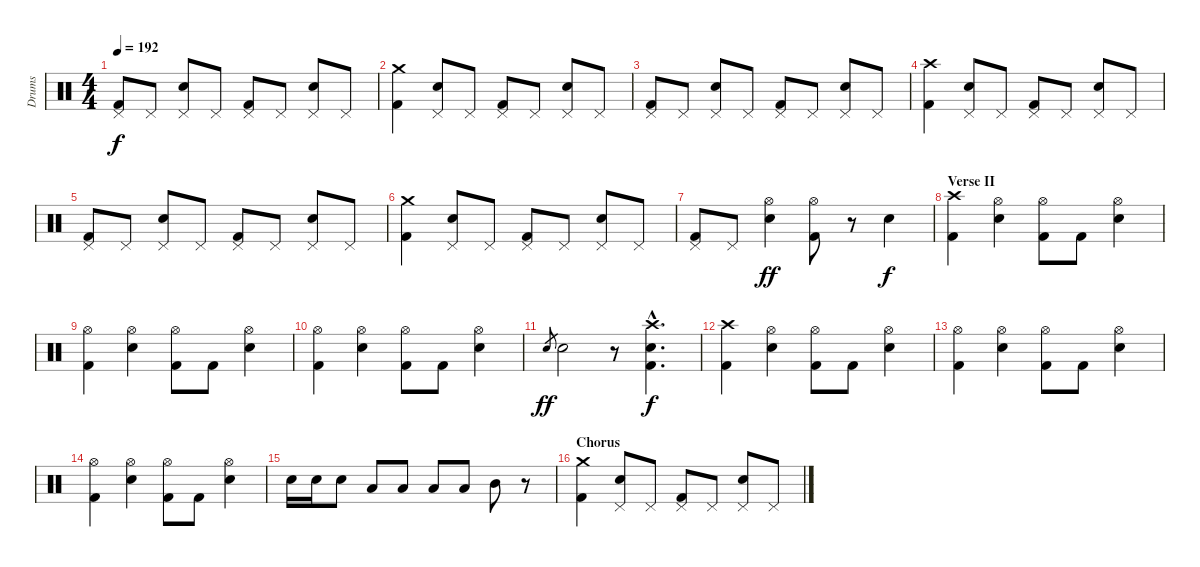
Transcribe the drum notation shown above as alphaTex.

\track ("Drums" "Drums") {instrument percussion}
\staff {score}
\articulation defaults
\ts (4 4)
\tempo 192
\clef neutral
\ks c
("Pedal Hi-Hat (hit)" "Kick (hit) 2").8{dy f} "Pedal Hi-Hat (hit)".8 ("Pedal Hi-Hat (hit)" "Electric Snare (hit)").8 "Pedal Hi-Hat (hit)".8 ("Pedal Hi-Hat (hit)" "Kick (hit) 2").8 "Pedal Hi-Hat (hit)".8 ("Pedal Hi-Hat (hit)" "Electric Snare (hit)").8 "Pedal Hi-Hat (hit)".8 |
("Crash medium (hit)" "Kick (hit) 2").4 ("Pedal Hi-Hat (hit)" "Electric Snare (hit)").8 "Pedal Hi-Hat (hit)".8 ("Pedal Hi-Hat (hit)" "Kick (hit) 2").8 "Pedal Hi-Hat (hit)".8 ("Pedal Hi-Hat (hit)" "Electric Snare (hit)").8 "Pedal Hi-Hat (hit)".8 |
("Pedal Hi-Hat (hit)" "Kick (hit) 2").8 "Pedal Hi-Hat (hit)".8 ("Pedal Hi-Hat (hit)" "Electric Snare (hit)").8 "Pedal Hi-Hat (hit)".8 ("Pedal Hi-Hat (hit)" "Kick (hit) 2").8 "Pedal Hi-Hat (hit)".8 ("Pedal Hi-Hat (hit)" "Electric Snare (hit)").8 "Pedal Hi-Hat (hit)".8 |
("Crash high (hit)" "Kick (hit) 2").4 ("Pedal Hi-Hat (hit)" "Electric Snare (hit)").8 "Pedal Hi-Hat (hit)".8 ("Pedal Hi-Hat (hit)" "Kick (hit) 2").8 "Pedal Hi-Hat (hit)".8 ("Pedal Hi-Hat (hit)" "Electric Snare (hit)").8 "Pedal Hi-Hat (hit)".8 |
("Pedal Hi-Hat (hit)" "Kick (hit) 2").8 "Pedal Hi-Hat (hit)".8 ("Pedal Hi-Hat (hit)" "Electric Snare (hit)").8 "Pedal Hi-Hat (hit)".8 ("Pedal Hi-Hat (hit)" "Kick (hit) 2").8 "Pedal Hi-Hat (hit)".8 ("Pedal Hi-Hat (hit)" "Electric Snare (hit)").8 "Pedal Hi-Hat (hit)".8 |
("Crash medium (hit)" "Kick (hit) 2").4 ("Pedal Hi-Hat (hit)" "Electric Snare (hit)").8 "Pedal Hi-Hat (hit)".8 ("Pedal Hi-Hat (hit)" "Kick (hit) 2").8 "Pedal Hi-Hat (hit)".8 ("Pedal Hi-Hat (hit)" "Electric Snare (hit)").8 "Pedal Hi-Hat (hit)".8 |
("Pedal Hi-Hat (hit)" "Kick (hit) 2").8 "Pedal Hi-Hat (hit)".8 ("Hi-Hat (open)" "Electric Snare (hit)").4{dy ff} ("Hi-Hat (open)" "Kick (hit) 2").8 r.8 "Electric Snare (hit)".4{dy f} |
\section ("" "Verse II")
("Crash high (hit)" "Kick (hit) 2").4 ("Hi-Hat (open)" "Electric Snare (hit)").4 ("Hi-Hat (open)" "Kick (hit) 2").8 "Kick (hit) 2".8 ("Hi-Hat (open)" "Electric Snare (hit)").4 |
("Hi-Hat (open)" "Kick (hit) 2").4 ("Hi-Hat (open)" "Electric Snare (hit)").4 ("Hi-Hat (open)" "Kick (hit) 2").8 "Kick (hit) 2".8 ("Hi-Hat (open)" "Electric Snare (hit)").4 |
("Hi-Hat (open)" "Kick (hit) 2").4 ("Hi-Hat (open)" "Electric Snare (hit)").4 ("Hi-Hat (open)" "Kick (hit) 2").8 "Kick (hit) 2".8 ("Hi-Hat (open)" "Electric Snare (hit)").4 |
"Electric Snare (hit)".8{gr dy ff} "Electric Snare (hit)".2 r.8 ("Crash high (hit)"{hac} "Electric Snare (hit)"{hac} "Kick (hit) 2"{hac}).4{d dy f} |
("Crash high (hit)" "Kick (hit) 2").4 ("Hi-Hat (open)" "Electric Snare (hit)").4 ("Hi-Hat (open)" "Kick (hit) 2").8 "Kick (hit) 2".8 ("Hi-Hat (open)" "Electric Snare (hit)").4 |
("Hi-Hat (open)" "Kick (hit) 2").4 ("Hi-Hat (open)" "Electric Snare (hit)").4 ("Hi-Hat (open)" "Kick (hit) 2").8 "Kick (hit) 2".8 ("Hi-Hat (open)" "Electric Snare (hit)").4 |
("Hi-Hat (open)" "Kick (hit) 2").4 ("Hi-Hat (open)" "Electric Snare (hit)").4 ("Hi-Hat (open)" "Kick (hit) 2").8 "Kick (hit) 2".8 ("Hi-Hat (open)" "Electric Snare (hit)").4 |
"Electric Snare (hit)".16 "Electric Snare (hit)".16 "Electric Snare (hit)".8 "Low Tom (hit)".8 "Low Tom (hit)".8 "Low Tom (hit)".8 "Low Tom (hit)".8 "Mid Tom (hit)".8 r.8 |
\section ("" "Chorus")
("Crash medium (hit)" "Kick (hit) 2").4 ("Pedal Hi-Hat (hit)" "Electric Snare (hit)").8 "Pedal Hi-Hat (hit)".8 ("Pedal Hi-Hat (hit)" "Kick (hit) 2").8 "Pedal Hi-Hat (hit)".8 ("Pedal Hi-Hat (hit)" "Electric Snare (hit)").8 "Pedal Hi-Hat (hit)".8
